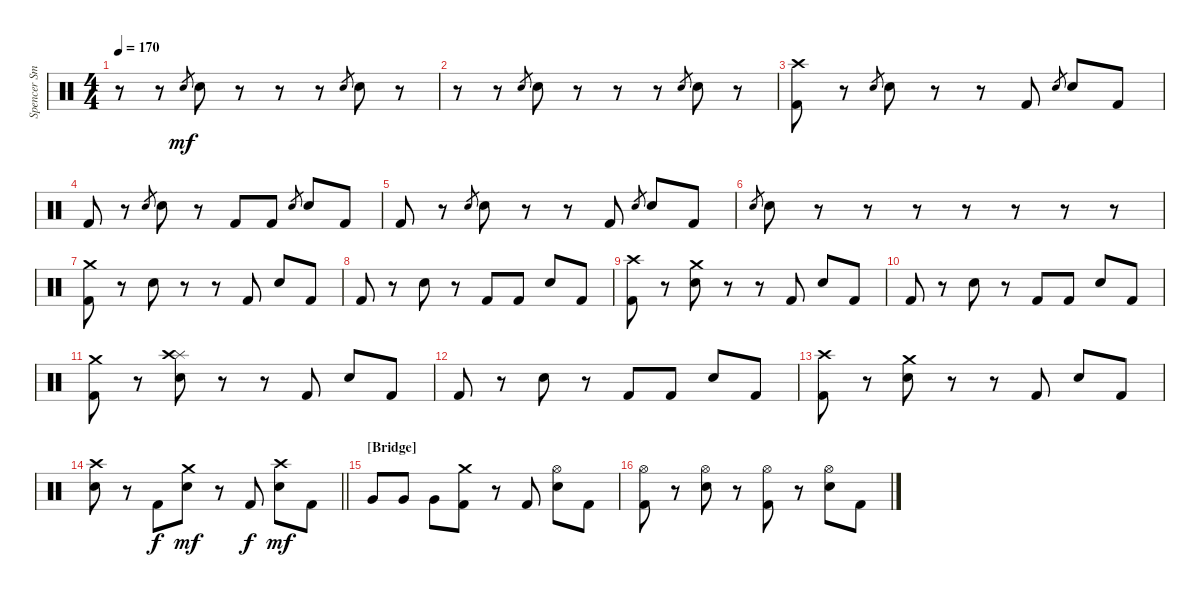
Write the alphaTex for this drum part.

\track ("Spencer Smith" "Spencer Sm") {instrument percussion}
\staff {score}
\articulation defaults
\ts (4 4)
\tempo 170
\clef neutral
\ks c
r.8{dy mf} r.8 "Electric Snare (hit)".8{gr} "Electric Snare (hit)".8 r.8 r.8 r.8 "Electric Snare (hit)".8{gr} "Electric Snare (hit)".8 r.8 |
r.8 r.8 "Electric Snare (hit)".8{gr} "Electric Snare (hit)".8 r.8 r.8 r.8 "Electric Snare (hit)".8{gr} "Electric Snare (hit)".8 r.8 |
("Crash high (hit)" "Kick (hit) 2").8 r.8 "Electric Snare (hit)".8{gr} "Electric Snare (hit)".8 r.8 r.8 "Kick (hit) 2".8 "Electric Snare (hit)".8{gr} "Electric Snare (hit)".8 "Kick (hit) 2".8 |
"Kick (hit) 2".8 r.8 "Electric Snare (hit)".8{gr} "Electric Snare (hit)".8 r.8 "Kick (hit) 2".8 "Kick (hit) 2".8 "Electric Snare (hit)".8{gr} "Electric Snare (hit)".8 "Kick (hit) 2".8 |
"Kick (hit) 2".8 r.8 "Electric Snare (hit)".8{gr} "Electric Snare (hit)".8 r.8 r.8 "Kick (hit) 2".8 "Electric Snare (hit)".8{gr} "Electric Snare (hit)".8 "Kick (hit) 2".8 |
"Electric Snare (hit)".8{gr} "Electric Snare (hit)".8 r.8 r.8 r.8 r.8 r.8 r.8 r.8 |
("Crash medium (hit)" "Kick (hit) 2").8 r.8 "Electric Snare (hit)".8 r.8 r.8 "Kick (hit) 2".8 "Electric Snare (hit)".8 "Kick (hit) 2".8 |
"Kick (hit) 2".8 r.8 "Electric Snare (hit)".8 r.8 "Kick (hit) 2".8 "Kick (hit) 2".8 "Electric Snare (hit)".8 "Kick (hit) 2".8 |
("Crash high (hit)" "Kick (hit) 2").8 r.8 ("Crash medium (hit)" "Electric Snare (hit)").8 r.8 r.8 "Kick (hit) 2".8 "Electric Snare (hit)".8 "Kick (hit) 2".8 |
"Kick (hit) 2".8 r.8 "Electric Snare (hit)".8 r.8 "Kick (hit) 2".8 "Kick (hit) 2".8 "Electric Snare (hit)".8 "Kick (hit) 2".8 |
("Crash medium (hit)" "Kick (hit) 2").8 r.8 ("Splash (hit)" "Crash high (hit)" "Electric Snare (hit)").8 r.8 r.8 "Kick (hit) 2".8 "Electric Snare (hit)".8 "Kick (hit) 2".8 |
"Kick (hit) 2".8 r.8 "Electric Snare (hit)".8 r.8 "Kick (hit) 2".8 "Kick (hit) 2".8 "Electric Snare (hit)".8 "Kick (hit) 2".8 |
("Crash high (hit)" "Kick (hit) 2").8 r.8 ("Crash medium (hit)" "Electric Snare (hit)").8 r.8 r.8 "Kick (hit) 2".8 "Electric Snare (hit)".8 "Kick (hit) 2".8 |
\barLineRight lightlight
("Crash high (hit)" "Electric Snare (hit)").8 r.8 "Kick (hit) 2".8{dy f} ("Crash medium (hit)" "Electric Snare (hit)").8{dy mf} r.8 "Kick (hit) 2".8{dy f} ("Crash high (hit)" "Electric Snare (hit)").8{dy mf} "Kick (hit) 2".8 |
\section ("" "[Bridge]")
"Very Low Tom (hit)".8 "Very Low Tom (hit)".8 "Very Low Tom (hit)".8 ("Crash medium (hit)" "Kick (hit) 2").8 r.8 "Kick (hit) 2".8 ("Hi-Hat (open)" "Electric Snare (hit)").8 "Kick (hit) 2".8 |
("Hi-Hat (open)" "Kick (hit) 2").8 r.8 ("Hi-Hat (open)" "Electric Snare (hit)").8 r.8 ("Hi-Hat (open)" "Kick (hit) 2").8 r.8 ("Hi-Hat (open)" "Electric Snare (hit)").8 "Kick (hit) 2".8
